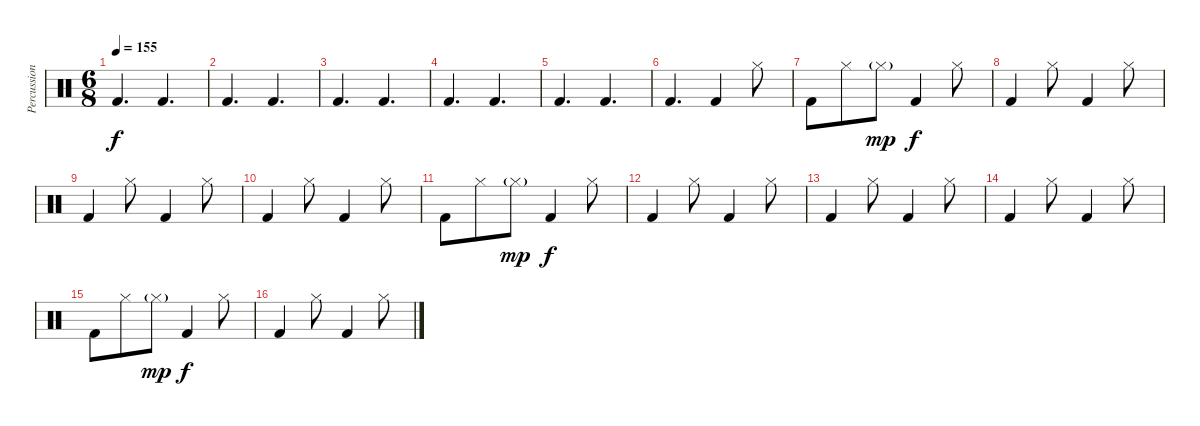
\track ("Percussion" "Percussion") {instrument percussion}
\staff {score}
\articulation defaults
\ts (6 8)
\tempo 155
\clef neutral
\ks c "Kick (hit) 2".4{d dy f} "Kick (hit) 2".4{d}
|
"Kick (hit) 2".4{d} "Kick (hit) 2".4{d} |
"Kick (hit) 2".4{d} "Kick (hit) 2".4{d} |
"Kick (hit) 2".4{d} "Kick (hit) 2".4{d} |
"Kick (hit) 2".4{d} "Kick (hit) 2".4{d} |
"Kick (hit) 2".4{d} "Kick (hit) 2".4 "Hi-Hat (closed)".8 |
"Kick (hit) 2".8 "Hi-Hat (closed)".8 "Hi-Hat (closed)"{g}.8{dy mp} "Kick (hit) 2".4{dy f} "Hi-Hat (closed)".8 |
"Kick (hit) 2".4 "Hi-Hat (closed)".8 "Kick (hit) 2".4 "Hi-Hat (closed)".8 |
"Kick (hit) 2".4 "Hi-Hat (closed)".8 "Kick (hit) 2".4 "Hi-Hat (closed)".8 |
"Kick (hit) 2".4 "Hi-Hat (closed)".8 "Kick (hit) 2".4 "Hi-Hat (closed)".8 |
"Kick (hit) 2".8 "Hi-Hat (closed)".8 "Hi-Hat (closed)"{g}.8{dy mp} "Kick (hit) 2".4{dy f} "Hi-Hat (closed)".8 |
"Kick (hit) 2".4 "Hi-Hat (closed)".8 "Kick (hit) 2".4 "Hi-Hat (closed)".8 |
"Kick (hit) 2".4 "Hi-Hat (closed)".8 "Kick (hit) 2".4 "Hi-Hat (closed)".8 |
"Kick (hit) 2".4 "Hi-Hat (closed)".8 "Kick (hit) 2".4 "Hi-Hat (closed)".8 |
"Kick (hit) 2".8 "Hi-Hat (closed)".8 "Hi-Hat (closed)"{g}.8{dy mp} "Kick (hit) 2".4{dy f} "Hi-Hat (closed)".8 |
"Kick (hit) 2".4 "Hi-Hat (closed)".8 "Kick (hit) 2".4 "Hi-Hat (closed)".8
